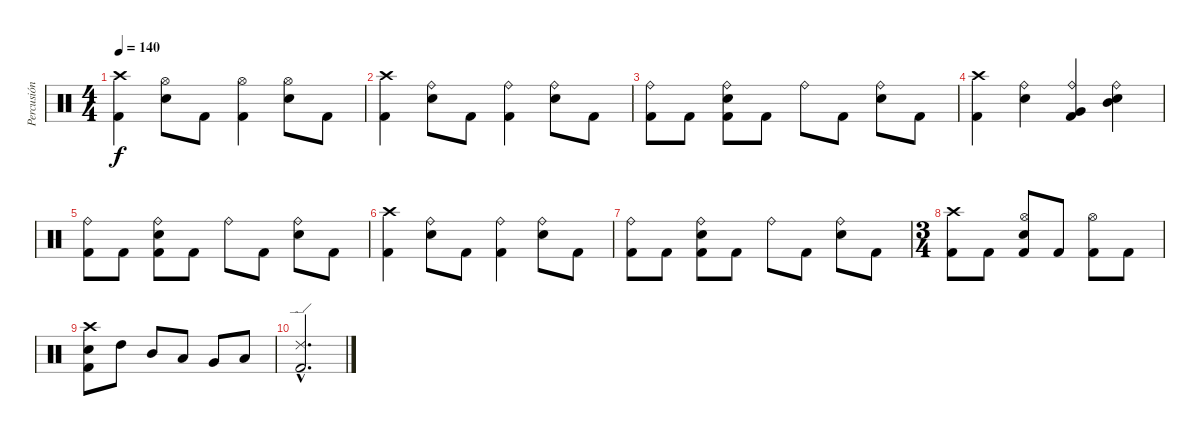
\track ("Percusión" "Percusión") {instrument percussion}
\staff {score}
\articulation defaults
\ts (4 4)
\tempo 140
\clef neutral
\ks c
("Crash high (hit)" "Kick (hit) 2").4{dy f} ("Hi-Hat (open)" "Snare (hit) 2").8 "Kick (hit) 2".8 ("Hi-Hat (open)" "Kick (hit) 2").4 ("Hi-Hat (open)" "Snare (hit) 2").8 "Kick (hit) 2".8 |
("Crash high (hit)" "Kick (hit) 2").4 ("Ride (bell)" "Snare (hit) 2").8 "Kick (hit) 2".8 ("Ride (bell)" "Kick (hit) 2").4 ("Ride (bell)" "Snare (hit) 2").8 "Kick (hit) 2".8 |
("Ride (bell)" "Kick (hit) 2").8 "Kick (hit) 2".8 ("Ride (bell)" "Snare (hit) 2" "Kick (hit) 2").8 "Kick (hit) 2".8 "Ride (bell)".8 "Kick (hit) 2".8 ("Ride (bell)" "Snare (hit) 2").8 "Kick (hit) 2".8 |
("Crash high (hit)" "Kick (hit) 2").4 ("Ride (bell)" "Snare (hit) 2").4 ("Ride (bell)" "Very Low Tom (hit)" "Kick (hit) 2").4 ("Ride (bell)" "Snare (hit) 2" "Mid Tom (hit)").4 |
("Ride (bell)" "Kick (hit) 2").8 "Kick (hit) 2".8 ("Ride (bell)" "Snare (hit) 2" "Kick (hit) 2").8 "Kick (hit) 2".8 "Ride (bell)".8 "Kick (hit) 2".8 ("Ride (bell)" "Snare (hit) 2").8 "Kick (hit) 2".8 |
("Crash high (hit)" "Kick (hit) 2").4 ("Ride (bell)" "Snare (hit) 2").8 "Kick (hit) 2".8 ("Ride (bell)" "Kick (hit) 2").4 ("Ride (bell)" "Snare (hit) 2").8 "Kick (hit) 2".8 |
("Ride (bell)" "Kick (hit) 2").8 "Kick (hit) 2".8 ("Ride (bell)" "Snare (hit) 2" "Kick (hit) 2").8 "Kick (hit) 2".8 "Ride (bell)".8 "Kick (hit) 2".8 ("Ride (bell)" "Snare (hit) 2").8 "Kick (hit) 2".8 |
\ts (3 4)
("Crash high (hit)" "Kick (hit) 2").8 "Kick (hit) 2".8 ("Hi-Hat (open)" "Snare (hit) 2" "Kick (hit) 2").8 "Kick (hit) 2".8 ("Hi-Hat (open)" "Kick (hit) 2").8 "Kick (hit) 2".8 |
("Crash high (hit)" "Snare (hit) 2" "Kick (hit) 2").8 "High Tom (hit)".8 "Mid Tom (hit)".8 "Low Tom (hit)".8 "Very Low Tom (hit)".8 "Low Floor Tom (hit)".8 |
("Ride (edge) 2"{hac} "Kick (hit) 2"{hac}).2{d}
